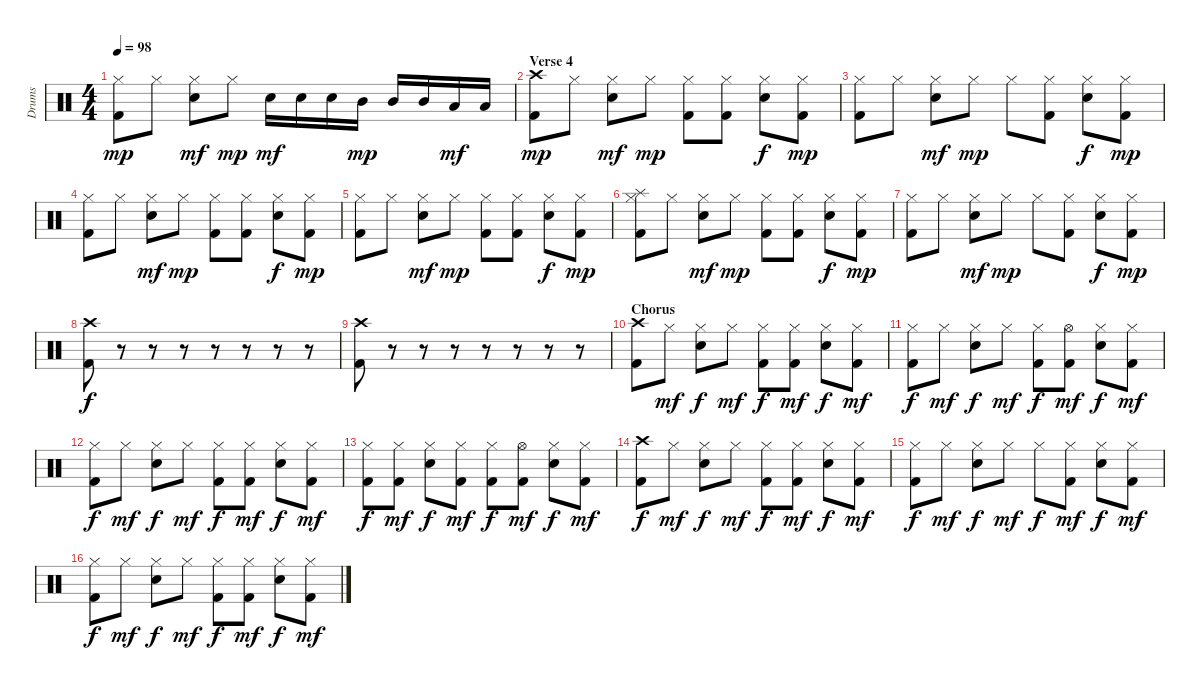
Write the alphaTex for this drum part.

\track ("Drums" "Drums") {instrument percussion}
\staff {score}
\articulation defaults
\ts (4 4)
\tempo 98
\clef neutral
\ks c
("Hi-Hat (closed)" "Kick (hit) 2").8{dy mp} "Hi-Hat (closed)".8 ("Hi-Hat (closed)" "Snare (hit) 2").8{dy mf} "Hi-Hat (closed)".8{dy mp} "Snare (hit) 2".16{dy mf} "Snare (hit) 2".16 "Snare (hit) 2".16 "Mid Tom (hit)".16{dy mp} "Mid Tom (hit)".16 "Mid Tom (hit)".16 "Low Tom (hit)".16{dy mf} "Low Tom (hit)".16 |
\section ("" "Verse 4")
("Crash high (hit)" "Kick (hit) 2").8{dy mp} "Hi-Hat (closed)".8 ("Hi-Hat (closed)" "Snare (hit) 2").8{dy mf} "Hi-Hat (closed)".8{dy mp} ("Hi-Hat (closed)" "Kick (hit) 2").8 ("Hi-Hat (closed)" "Kick (hit) 2").8 ("Hi-Hat (closed)" "Snare (hit) 2").8{dy f} ("Hi-Hat (closed)" "Kick (hit) 2").8{dy mp} |
("Hi-Hat (closed)" "Kick (hit) 2").8 "Hi-Hat (closed)".8 ("Hi-Hat (closed)" "Snare (hit) 2").8{dy mf} "Hi-Hat (closed)".8{dy mp} "Hi-Hat (closed)".8 ("Hi-Hat (closed)" "Kick (hit) 2").8 ("Hi-Hat (closed)" "Snare (hit) 2").8{dy f} ("Hi-Hat (closed)" "Kick (hit) 2").8{dy mp} |
("Hi-Hat (closed)" "Kick (hit) 2").8 "Hi-Hat (closed)".8 ("Hi-Hat (closed)" "Snare (hit) 2").8{dy mf} "Hi-Hat (closed)".8{dy mp} ("Hi-Hat (closed)" "Kick (hit) 2").8 ("Hi-Hat (closed)" "Kick (hit) 2").8 ("Hi-Hat (closed)" "Snare (hit) 2").8{dy f} ("Hi-Hat (closed)" "Kick (hit) 2").8{dy mp} |
("Hi-Hat (closed)" "Kick (hit) 2").8 "Hi-Hat (closed)".8 ("Hi-Hat (closed)" "Snare (hit) 2").8{dy mf} "Hi-Hat (closed)".8{dy mp} ("Hi-Hat (closed)" "Kick (hit) 2").8 ("Hi-Hat (closed)" "Kick (hit) 2").8 ("Hi-Hat (closed)" "Snare (hit) 2").8{dy f} ("Hi-Hat (closed)" "Kick (hit) 2").8{dy mp} |
("Splash (hit)" "Hi-Hat (closed)" "Kick (hit) 2").8 "Hi-Hat (closed)".8 ("Hi-Hat (closed)" "Snare (hit) 2").8{dy mf} "Hi-Hat (closed)".8{dy mp} ("Hi-Hat (closed)" "Kick (hit) 2").8 ("Hi-Hat (closed)" "Kick (hit) 2").8 ("Hi-Hat (closed)" "Snare (hit) 2").8{dy f} ("Hi-Hat (closed)" "Kick (hit) 2").8{dy mp} |
("Hi-Hat (closed)" "Kick (hit) 2").8 "Hi-Hat (closed)".8 ("Hi-Hat (closed)" "Snare (hit) 2").8{dy mf} "Hi-Hat (closed)".8{dy mp} "Hi-Hat (closed)".8 ("Hi-Hat (closed)" "Kick (hit) 2").8 ("Hi-Hat (closed)" "Snare (hit) 2").8{dy f} ("Hi-Hat (closed)" "Kick (hit) 2").8{dy mp} |
("Crash high (hit)" "Kick (hit) 2").8{dy f} r.8 r.8 r.8 r.8 r.8 r.8 r.8 |
("Crash high (hit)" "Kick (hit) 2").8 r.8 r.8 r.8 r.8 r.8 r.8 r.8 |
\section ("" "Chorus")
("Crash high (hit)" "Kick (hit) 2").8 "Hi-Hat (closed)".8{dy mf} ("Hi-Hat (closed)" "Snare (hit) 2").8{dy f} "Hi-Hat (closed)".8{dy mf} ("Hi-Hat (closed)" "Kick (hit) 2").8{dy f} ("Hi-Hat (closed)" "Kick (hit) 2").8{dy mf} ("Hi-Hat (closed)" "Snare (hit) 2").8{dy f} ("Hi-Hat (closed)" "Kick (hit) 2").8{dy mf} |
("Hi-Hat (closed)" "Kick (hit) 2").8{dy f} "Hi-Hat (closed)".8{dy mf} ("Hi-Hat (closed)" "Snare (hit) 2").8{dy f} "Hi-Hat (closed)".8{dy mf} ("Hi-Hat (closed)" "Kick (hit) 2").8{dy f} ("Hi-Hat (open)" "Kick (hit) 2").8{dy mf} ("Hi-Hat (closed)" "Snare (hit) 2").8{dy f} ("Hi-Hat (closed)" "Kick (hit) 2").8{dy mf} |
("Hi-Hat (closed)" "Kick (hit) 2").8{dy f} "Hi-Hat (closed)".8{dy mf} ("Hi-Hat (closed)" "Snare (hit) 2").8{dy f} "Hi-Hat (closed)".8{dy mf} ("Hi-Hat (closed)" "Kick (hit) 2").8{dy f} ("Hi-Hat (closed)" "Kick (hit) 2").8{dy mf} ("Hi-Hat (closed)" "Snare (hit) 2").8{dy f} ("Hi-Hat (closed)" "Kick (hit) 2").8{dy mf} |
("Hi-Hat (closed)" "Kick (hit) 2").8{dy f} ("Hi-Hat (closed)" "Kick (hit) 2").8{dy mf} ("Hi-Hat (closed)" "Snare (hit) 2").8{dy f} ("Hi-Hat (closed)" "Kick (hit) 2").8{dy mf} ("Hi-Hat (closed)" "Kick (hit) 2").8{dy f} ("Hi-Hat (open)" "Kick (hit) 2").8{dy mf} ("Hi-Hat (closed)" "Snare (hit) 2").8{dy f} ("Hi-Hat (closed)" "Kick (hit) 2").8{dy mf} |
("Crash high (hit)" "Kick (hit) 2").8{dy f} "Hi-Hat (closed)".8{dy mf} ("Hi-Hat (closed)" "Snare (hit) 2").8{dy f} "Hi-Hat (closed)".8{dy mf} ("Hi-Hat (closed)" "Kick (hit) 2").8{dy f} ("Hi-Hat (closed)" "Kick (hit) 2").8{dy mf} ("Hi-Hat (closed)" "Snare (hit) 2").8{dy f} ("Hi-Hat (closed)" "Kick (hit) 2").8{dy mf} |
("Hi-Hat (closed)" "Kick (hit) 2").8{dy f} "Hi-Hat (closed)".8{dy mf} ("Hi-Hat (closed)" "Snare (hit) 2").8{dy f} "Hi-Hat (closed)".8{dy mf} "Hi-Hat (closed)".8{dy f} ("Hi-Hat (closed)" "Kick (hit) 2").8{dy mf} ("Hi-Hat (closed)" "Snare (hit) 2").8{dy f} ("Hi-Hat (closed)" "Kick (hit) 2").8{dy mf} |
("Hi-Hat (closed)" "Kick (hit) 2").8{dy f} "Hi-Hat (closed)".8{dy mf} ("Hi-Hat (closed)" "Snare (hit) 2").8{dy f} "Hi-Hat (closed)".8{dy mf} ("Hi-Hat (closed)" "Kick (hit) 2").8{dy f} ("Hi-Hat (closed)" "Kick (hit) 2").8{dy mf} ("Hi-Hat (closed)" "Snare (hit) 2").8{dy f} ("Hi-Hat (closed)" "Kick (hit) 2").8{dy mf}
